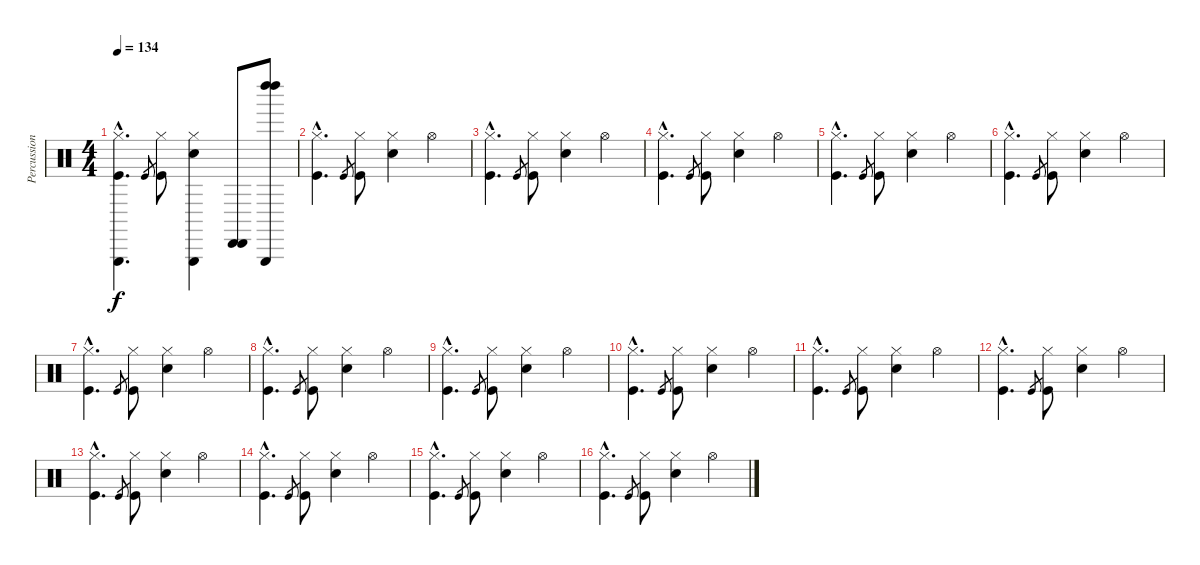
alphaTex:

\track ("Percussions" "Percussion") {instrument percussion}
\staff {score}
\articulation defaults
\ts (4 4)
\tempo 134
\clef neutral
\ks c
("Hi-Hat (closed)"{hac} "Triangle (hit)"{hac} "Kick (hit)"{hac}).4{d dy f} "Kick (hit)".8{gr} ("Hi-Hat (closed)" "Kick (hit)").8 ("Hi-Hat (closed)" "Triangle (hit)" "Electric Snare (hit)").4 ("Cabasa (hit)" "Cabasa (hit)").8 ("Left Maraca (hit)" "Left Maraca (hit)" "Triangle (hit)").8 |
("Hi-Hat (closed)"{hac} "Kick (hit)"{hac}).4{d} "Kick (hit)".8{gr} ("Hi-Hat (closed)" "Kick (hit)").8 ("Hi-Hat (closed)" "Electric Snare (hit)").4 "Hi-Hat (open)".4 |
("Hi-Hat (closed)"{hac} "Kick (hit)"{hac}).4{d} "Kick (hit)".8{gr} ("Hi-Hat (closed)" "Kick (hit)").8 ("Hi-Hat (closed)" "Electric Snare (hit)").4 "Hi-Hat (open)".4 |
("Hi-Hat (closed)"{hac} "Kick (hit)"{hac}).4{d} "Kick (hit)".8{gr} ("Hi-Hat (closed)" "Kick (hit)").8 ("Hi-Hat (closed)" "Electric Snare (hit)").4 "Hi-Hat (open)".4 |
("Hi-Hat (closed)"{hac} "Kick (hit)"{hac}).4{d} "Kick (hit)".8{gr} ("Hi-Hat (closed)" "Kick (hit)").8 ("Hi-Hat (closed)" "Electric Snare (hit)").4 "Hi-Hat (open)".4 |
("Hi-Hat (closed)"{hac} "Kick (hit)"{hac}).4{d} "Kick (hit)".8{gr} ("Hi-Hat (closed)" "Kick (hit)").8 ("Hi-Hat (closed)" "Electric Snare (hit)").4 "Hi-Hat (open)".4 |
("Hi-Hat (closed)"{hac} "Kick (hit)"{hac}).4{d} "Kick (hit)".8{gr} ("Hi-Hat (closed)" "Kick (hit)").8 ("Hi-Hat (closed)" "Electric Snare (hit)").4 "Hi-Hat (open)".4 |
("Hi-Hat (closed)"{hac} "Kick (hit)"{hac}).4{d} "Kick (hit)".8{gr} ("Hi-Hat (closed)" "Kick (hit)").8 ("Hi-Hat (closed)" "Electric Snare (hit)").4 "Hi-Hat (open)".4 |
("Hi-Hat (closed)"{hac} "Kick (hit)"{hac}).4{d} "Kick (hit)".8{gr} ("Hi-Hat (closed)" "Kick (hit)").8 ("Hi-Hat (closed)" "Electric Snare (hit)").4 "Hi-Hat (open)".4 |
("Hi-Hat (closed)"{hac} "Kick (hit)"{hac}).4{d} "Kick (hit)".8{gr} ("Hi-Hat (closed)" "Kick (hit)").8 ("Hi-Hat (closed)" "Electric Snare (hit)").4 "Hi-Hat (open)".4 |
("Hi-Hat (closed)"{hac} "Kick (hit)"{hac}).4{d} "Kick (hit)".8{gr} ("Hi-Hat (closed)" "Kick (hit)").8 ("Hi-Hat (closed)" "Electric Snare (hit)").4 "Hi-Hat (open)".4 |
("Hi-Hat (closed)"{hac} "Kick (hit)"{hac}).4{d} "Kick (hit)".8{gr} ("Hi-Hat (closed)" "Kick (hit)").8 ("Hi-Hat (closed)" "Electric Snare (hit)").4 "Hi-Hat (open)".4 |
("Hi-Hat (closed)"{hac} "Kick (hit)"{hac}).4{d} "Kick (hit)".8{gr} ("Hi-Hat (closed)" "Kick (hit)").8 ("Hi-Hat (closed)" "Electric Snare (hit)").4 "Hi-Hat (open)".4 |
("Hi-Hat (closed)"{hac} "Kick (hit)"{hac}).4{d} "Kick (hit)".8{gr} ("Hi-Hat (closed)" "Kick (hit)").8 ("Hi-Hat (closed)" "Electric Snare (hit)").4 "Hi-Hat (open)".4 |
("Hi-Hat (closed)"{hac} "Kick (hit)"{hac}).4{d} "Kick (hit)".8{gr} ("Hi-Hat (closed)" "Kick (hit)").8 ("Hi-Hat (closed)" "Electric Snare (hit)").4 "Hi-Hat (open)".4 |
("Hi-Hat (closed)"{hac} "Kick (hit)"{hac}).4{d} "Kick (hit)".8{gr} ("Hi-Hat (closed)" "Kick (hit)").8 ("Hi-Hat (closed)" "Electric Snare (hit)").4 "Hi-Hat (open)".4
